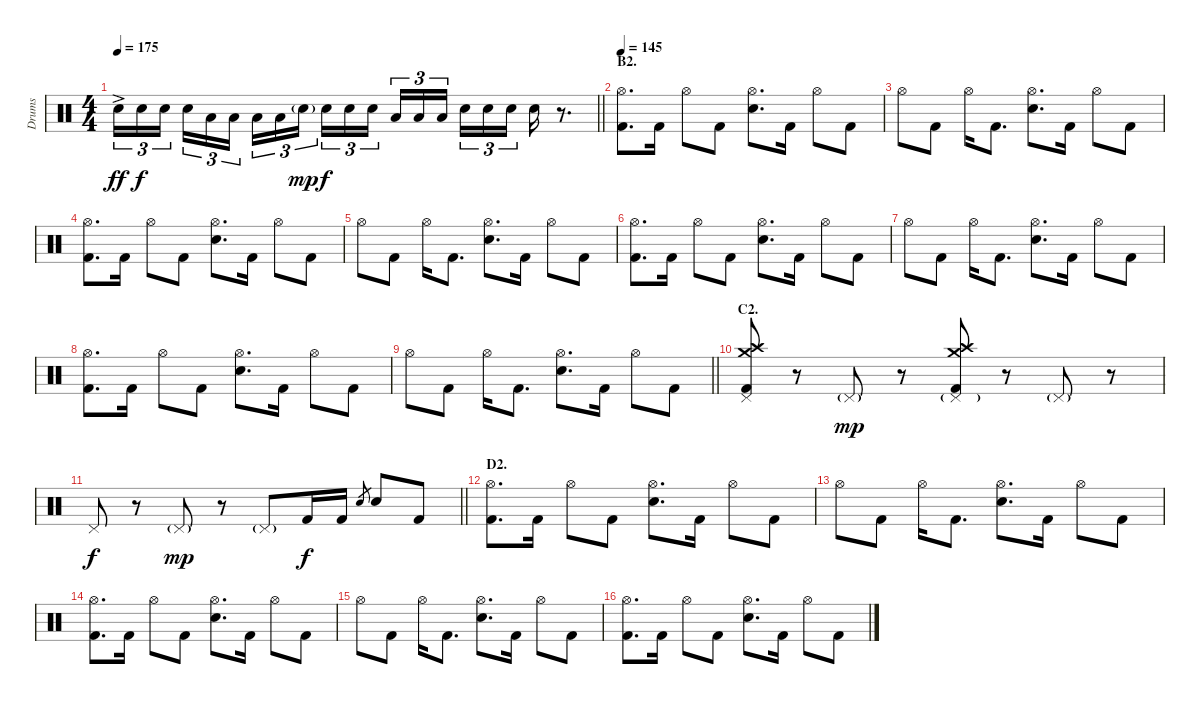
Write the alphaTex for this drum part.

\track ("Drums" "Drums") {instrument percussion}
\staff {score}
\articulation defaults
\ts (4 4)
\tempo 175
\clef neutral
\barLineRight lightlight
\ks c "Electric Snare (hit)"{ac}.16{tu (3 2) dy ff} "Electric Snare (hit)".16{tu (3 2) dy f} "Electric Snare (hit)".16{tu (3 2) beam splitsecondary} "Electric Snare (hit)".16{tu (3 2)} "Low Tom (hit)".16{tu (3 2)} "Low Tom (hit)".16{tu (3 2)} "Low Tom (hit)".16{tu (3 2)} "Low Tom (hit)".16{tu (3 2)} "Electric Snare (hit)"{g}.16{tu (3 2) dy mp beam splitsecondary} "Electric Snare (hit)".16{tu (3 2) dy f} "Electric Snare (hit)".16{tu (3 2)} "Electric Snare (hit)".16{tu (3 2)} "Low Tom (hit)".16{tu (3 2)} "Low Tom (hit)".16{tu (3 2)} "Low Tom (hit)".16{tu (3 2) beam splitsecondary} "Electric Snare (hit)".16{tu (3 2)} "Electric Snare (hit)".16{tu (3 2)} "Electric Snare (hit)".16{tu (3 2)} "Electric Snare (hit)".16
r.8{d} |
\section ("" "B2.")
\tempo 145
("Hi-Hat (open)" "Kick (hit) 2").8{d} "Kick (hit) 2".16 "Hi-Hat (open)".8 "Kick (hit) 2".8 ("Hi-Hat (open)" "Electric Snare (hit)").8{d} "Kick (hit) 2".16 "Hi-Hat (open)".8 "Kick (hit) 2".8 |
"Hi-Hat (open)".8 "Kick (hit) 2".8 "Hi-Hat (open)".16 "Kick (hit) 2".8{d} ("Hi-Hat (open)" "Electric Snare (hit)").8{d} "Kick (hit) 2".16 "Hi-Hat (open)".8 "Kick (hit) 2".8 |
("Hi-Hat (open)" "Kick (hit) 2").8{d} "Kick (hit) 2".16 "Hi-Hat (open)".8 "Kick (hit) 2".8 ("Hi-Hat (open)" "Electric Snare (hit)").8{d} "Kick (hit) 2".16 "Hi-Hat (open)".8 "Kick (hit) 2".8 |
"Hi-Hat (open)".8 "Kick (hit) 2".8 "Hi-Hat (open)".16 "Kick (hit) 2".8{d} ("Hi-Hat (open)" "Electric Snare (hit)").8{d} "Kick (hit) 2".16 "Hi-Hat (open)".8 "Kick (hit) 2".8 |
("Hi-Hat (open)" "Kick (hit) 2").8{d} "Kick (hit) 2".16 "Hi-Hat (open)".8 "Kick (hit) 2".8 ("Hi-Hat (open)" "Electric Snare (hit)").8{d} "Kick (hit) 2".16 "Hi-Hat (open)".8 "Kick (hit) 2".8 |
"Hi-Hat (open)".8 "Kick (hit) 2".8 "Hi-Hat (open)".16 "Kick (hit) 2".8{d} ("Hi-Hat (open)" "Electric Snare (hit)").8{d} "Kick (hit) 2".16 "Hi-Hat (open)".8 "Kick (hit) 2".8 |
("Hi-Hat (open)" "Kick (hit) 2").8{d} "Kick (hit) 2".16 "Hi-Hat (open)".8 "Kick (hit) 2".8 ("Hi-Hat (open)" "Electric Snare (hit)").8{d} "Kick (hit) 2".16 "Hi-Hat (open)".8 "Kick (hit) 2".8 |
\barLineRight lightlight "Hi-Hat (open)".8 "Kick (hit) 2".8 "Hi-Hat (open)".16 "Kick (hit) 2".8{d}
("Hi-Hat (open)" "Electric Snare (hit)").8{d} "Kick (hit) 2".16 "Hi-Hat (open)".8 "Kick (hit) 2".8 |
\section ("" "C2.")
("Crash medium (hit)" "Crash high (hit)" "Pedal Hi-Hat (hit)" "Kick (hit) 2").8 r.8 "Pedal Hi-Hat (hit)"{g}.8{dy mp} r.8 ("Crash medium (hit)" "Crash high (hit)" "Pedal Hi-Hat (hit)"{g} "Kick (hit) 2").8 r.8 "Pedal Hi-Hat (hit)"{g}.8 r.8 |
\barLineRight lightlight "Pedal Hi-Hat (hit)".8{dy f}
r.8 "Pedal Hi-Hat (hit)"{g}.8{dy mp} r.8 "Pedal Hi-Hat (hit)"{g}.8 "Kick (hit) 2".16{dy f} "Kick (hit) 2".16 "Electric Snare (hit)".8{gr} "Electric Snare (hit)".8 "Kick (hit) 2".8 |
\section ("" "D2.")
("Hi-Hat (open)" "Kick (hit) 2").8{d} "Kick (hit) 2".16 "Hi-Hat (open)".8 "Kick (hit) 2".8 ("Hi-Hat (open)" "Electric Snare (hit)").8{d} "Kick (hit) 2".16 "Hi-Hat (open)".8 "Kick (hit) 2".8 |
"Hi-Hat (open)".8 "Kick (hit) 2".8 "Hi-Hat (open)".16 "Kick (hit) 2".8{d} ("Hi-Hat (open)" "Electric Snare (hit)").8{d} "Kick (hit) 2".16 "Hi-Hat (open)".8 "Kick (hit) 2".8 |
("Hi-Hat (open)" "Kick (hit) 2").8{d} "Kick (hit) 2".16 "Hi-Hat (open)".8 "Kick (hit) 2".8 ("Hi-Hat (open)" "Electric Snare (hit)").8{d} "Kick (hit) 2".16 "Hi-Hat (open)".8 "Kick (hit) 2".8 |
"Hi-Hat (open)".8 "Kick (hit) 2".8 "Hi-Hat (open)".16 "Kick (hit) 2".8{d} ("Hi-Hat (open)" "Electric Snare (hit)").8{d} "Kick (hit) 2".16 "Hi-Hat (open)".8 "Kick (hit) 2".8 |
("Hi-Hat (open)" "Kick (hit) 2").8{d} "Kick (hit) 2".16 "Hi-Hat (open)".8 "Kick (hit) 2".8 ("Hi-Hat (open)" "Electric Snare (hit)").8{d} "Kick (hit) 2".16 "Hi-Hat (open)".8 "Kick (hit) 2".8
